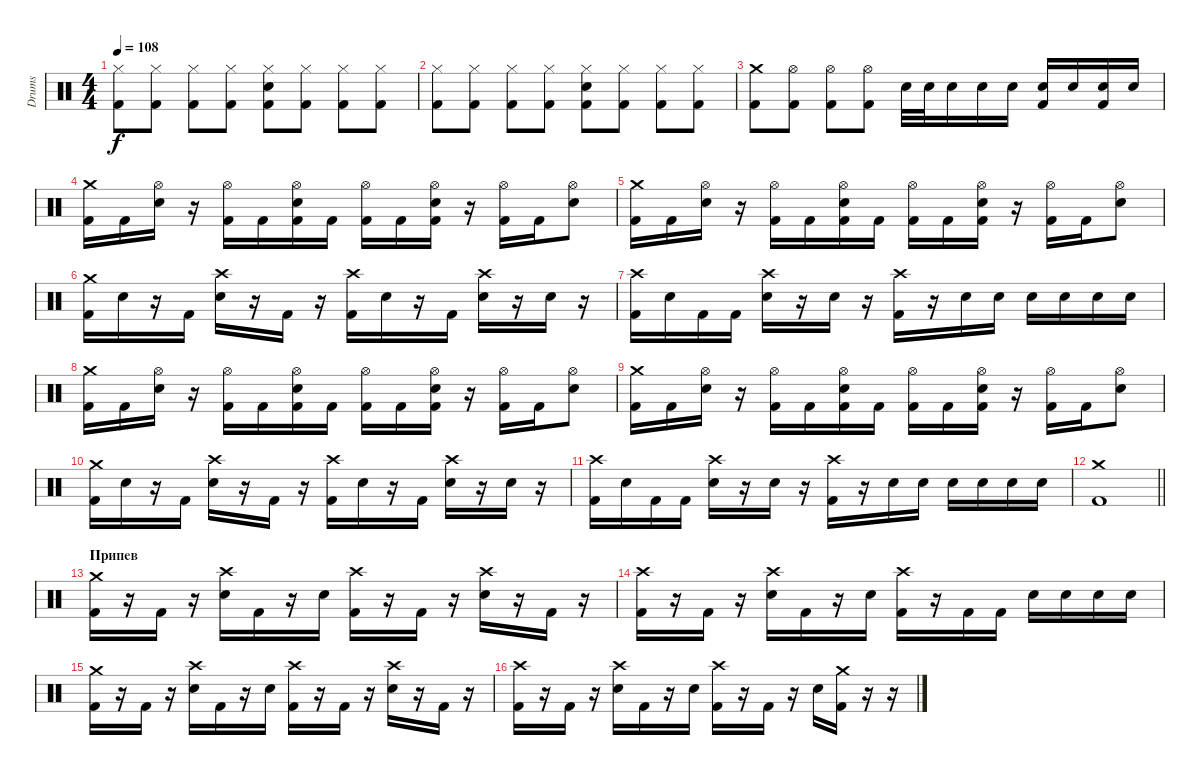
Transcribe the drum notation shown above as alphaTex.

\track ("Drums" "Drums") {instrument percussion}
\staff {score}
\articulation defaults
\ts (4 4)
\tempo 108
\clef neutral
\ks c
("Hi-Hat (closed)" "Kick (hit) 2").8{dy f} ("Hi-Hat (closed)" "Kick (hit) 2").8 ("Hi-Hat (closed)" "Kick (hit) 2").8 ("Hi-Hat (closed)" "Kick (hit) 2").8 ("Hi-Hat (closed)" "Electric Snare (hit)" "Kick (hit) 2").8 ("Hi-Hat (closed)" "Kick (hit) 2").8 ("Hi-Hat (closed)" "Kick (hit) 2").8 ("Hi-Hat (closed)" "Kick (hit) 2").8 |
("Hi-Hat (closed)" "Kick (hit) 2").8 ("Hi-Hat (closed)" "Kick (hit) 2").8 ("Hi-Hat (closed)" "Kick (hit) 2").8 ("Hi-Hat (closed)" "Kick (hit) 2").8 ("Hi-Hat (closed)" "Electric Snare (hit)" "Kick (hit) 2").8 ("Hi-Hat (closed)" "Kick (hit) 2").8 ("Hi-Hat (closed)" "Kick (hit) 2").8 ("Hi-Hat (closed)" "Kick (hit) 2").8 |
("Crash medium (hit)" "Kick (hit) 2").8 ("Hi-Hat (open)" "Kick (hit) 2").8 ("Hi-Hat (open)" "Kick (hit) 2").8 ("Hi-Hat (open)" "Kick (hit) 2").8 "Electric Snare (hit)".32 "Electric Snare (hit)".32 "Electric Snare (hit)".16 "Electric Snare (hit)".16 "Electric Snare (hit)".16 ("Electric Snare (hit)" "Kick (hit) 2").16 "Electric Snare (hit)".16 ("Electric Snare (hit)" "Kick (hit) 2").16 "Electric Snare (hit)".16 |
("Crash medium (hit)" "Kick (hit) 2").16 "Kick (hit) 2".16 ("Hi-Hat (open)" "Electric Snare (hit)").16 r.16 ("Hi-Hat (open)" "Kick (hit) 2").16 "Kick (hit) 2".16 ("Hi-Hat (open)" "Electric Snare (hit)" "Kick (hit) 2").16 "Kick (hit) 2".16 ("Hi-Hat (open)" "Kick (hit) 2").16 "Kick (hit) 2".16 ("Hi-Hat (open)" "Electric Snare (hit)" "Kick (hit) 2").16 r.16 ("Hi-Hat (open)" "Kick (hit) 2").16 "Kick (hit) 2".16 ("Hi-Hat (open)" "Electric Snare (hit)").8 |
("Crash medium (hit)" "Kick (hit) 2").16 "Kick (hit) 2".16 ("Hi-Hat (open)" "Electric Snare (hit)").16 r.16 ("Hi-Hat (open)" "Kick (hit) 2").16 "Kick (hit) 2".16 ("Hi-Hat (open)" "Electric Snare (hit)" "Kick (hit) 2").16 "Kick (hit) 2".16 ("Hi-Hat (open)" "Kick (hit) 2").16 "Kick (hit) 2".16 ("Hi-Hat (open)" "Electric Snare (hit)" "Kick (hit) 2").16 r.16 ("Hi-Hat (open)" "Kick (hit) 2").16 "Kick (hit) 2".16 ("Hi-Hat (open)" "Electric Snare (hit)").8 |
("Crash medium (hit)" "Kick (hit) 2").16 "Electric Snare (hit)".16 r.16 "Kick (hit) 2".16 ("Crash high (hit)" "Electric Snare (hit)").16 r.16 "Kick (hit) 2".16 r.16 ("Crash high (hit)" "Kick (hit) 2").16 "Electric Snare (hit)".16 r.16 "Kick (hit) 2".16 ("Crash high (hit)" "Electric Snare (hit)").16 r.16 "Electric Snare (hit)".16 r.16 |
("Crash high (hit)" "Kick (hit) 2").16 "Electric Snare (hit)".16 "Kick (hit) 2".16 "Kick (hit) 2".16 ("Crash high (hit)" "Electric Snare (hit)").16 r.16 "Electric Snare (hit)".16 r.16 ("Crash high (hit)" "Kick (hit) 2").16 r.16 "Electric Snare (hit)".16 "Electric Snare (hit)".16 "Electric Snare (hit)".16 "Electric Snare (hit)".16 "Electric Snare (hit)".16 "Electric Snare (hit)".16 |
("Crash medium (hit)" "Kick (hit) 2").16 "Kick (hit) 2".16 ("Hi-Hat (open)" "Electric Snare (hit)").16 r.16 ("Hi-Hat (open)" "Kick (hit) 2").16 "Kick (hit) 2".16 ("Hi-Hat (open)" "Electric Snare (hit)" "Kick (hit) 2").16 "Kick (hit) 2".16 ("Hi-Hat (open)" "Kick (hit) 2").16 "Kick (hit) 2".16 ("Hi-Hat (open)" "Electric Snare (hit)" "Kick (hit) 2").16 r.16 ("Hi-Hat (open)" "Kick (hit) 2").16 "Kick (hit) 2".16 ("Hi-Hat (open)" "Electric Snare (hit)").8 |
("Crash medium (hit)" "Kick (hit) 2").16 "Kick (hit) 2".16 ("Hi-Hat (open)" "Electric Snare (hit)").16 r.16 ("Hi-Hat (open)" "Kick (hit) 2").16 "Kick (hit) 2".16 ("Hi-Hat (open)" "Electric Snare (hit)" "Kick (hit) 2").16 "Kick (hit) 2".16 ("Hi-Hat (open)" "Kick (hit) 2").16 "Kick (hit) 2".16 ("Hi-Hat (open)" "Electric Snare (hit)" "Kick (hit) 2").16 r.16 ("Hi-Hat (open)" "Kick (hit) 2").16 "Kick (hit) 2".16 ("Hi-Hat (open)" "Electric Snare (hit)").8 |
("Crash medium (hit)" "Kick (hit) 2").16 "Electric Snare (hit)".16 r.16 "Kick (hit) 2".16 ("Crash high (hit)" "Electric Snare (hit)").16 r.16 "Kick (hit) 2".16 r.16 ("Crash high (hit)" "Kick (hit) 2").16 "Electric Snare (hit)".16 r.16 "Kick (hit) 2".16 ("Crash high (hit)" "Electric Snare (hit)").16 r.16 "Electric Snare (hit)".16 r.16 |
("Crash high (hit)" "Kick (hit) 2").16 "Electric Snare (hit)".16 "Kick (hit) 2".16 "Kick (hit) 2".16 ("Crash high (hit)" "Electric Snare (hit)").16 r.16 "Electric Snare (hit)".16 r.16 ("Crash high (hit)" "Kick (hit) 2").16 r.16 "Electric Snare (hit)".16 "Electric Snare (hit)".16 "Electric Snare (hit)".16 "Electric Snare (hit)".16 "Electric Snare (hit)".16 "Electric Snare (hit)".16 |
\barLineRight lightlight
("Kick (hit) 2" "Crash medium (hit)").1 |
\section ("" "Припев")
("Crash medium (hit)" "Kick (hit) 2").16 r.16 "Kick (hit) 2".16 r.16 ("Crash high (hit)" "Electric Snare (hit)").16 "Kick (hit) 2".16 r.16 "Electric Snare (hit)".16 ("Crash high (hit)" "Kick (hit) 2").16 r.16 "Kick (hit) 2".16 r.16 ("Crash high (hit)" "Electric Snare (hit)").16 r.16 "Kick (hit) 2".16 r.16 |
("Crash high (hit)" "Kick (hit) 2").16 r.16 "Kick (hit) 2".16 r.16 ("Crash high (hit)" "Electric Snare (hit)").16 "Kick (hit) 2".16 r.16 "Electric Snare (hit)".16 ("Crash high (hit)" "Kick (hit) 2").16 r.16 "Kick (hit) 2".16 "Kick (hit) 2".16 "Electric Snare (hit)".16 "Electric Snare (hit)".16 "Electric Snare (hit)".16 "Electric Snare (hit)".16 |
("Crash medium (hit)" "Kick (hit) 2").16 r.16 "Kick (hit) 2".16 r.16 ("Crash high (hit)" "Electric Snare (hit)").16 "Kick (hit) 2".16 r.16 "Electric Snare (hit)".16 ("Crash high (hit)" "Kick (hit) 2").16 r.16 "Kick (hit) 2".16 r.16 ("Crash high (hit)" "Electric Snare (hit)").16 r.16 "Kick (hit) 2".16 r.16 |
("Crash high (hit)" "Kick (hit) 2").16 r.16 "Kick (hit) 2".16 r.16 ("Crash high (hit)" "Electric Snare (hit)").16 "Kick (hit) 2".16 r.16 "Electric Snare (hit)".16 ("Crash high (hit)" "Kick (hit) 2").16 r.16 "Kick (hit) 2".16 r.16 "Electric Snare (hit)".16 ("Crash medium (hit)" "Kick (hit) 2").16 r.16 r.16
